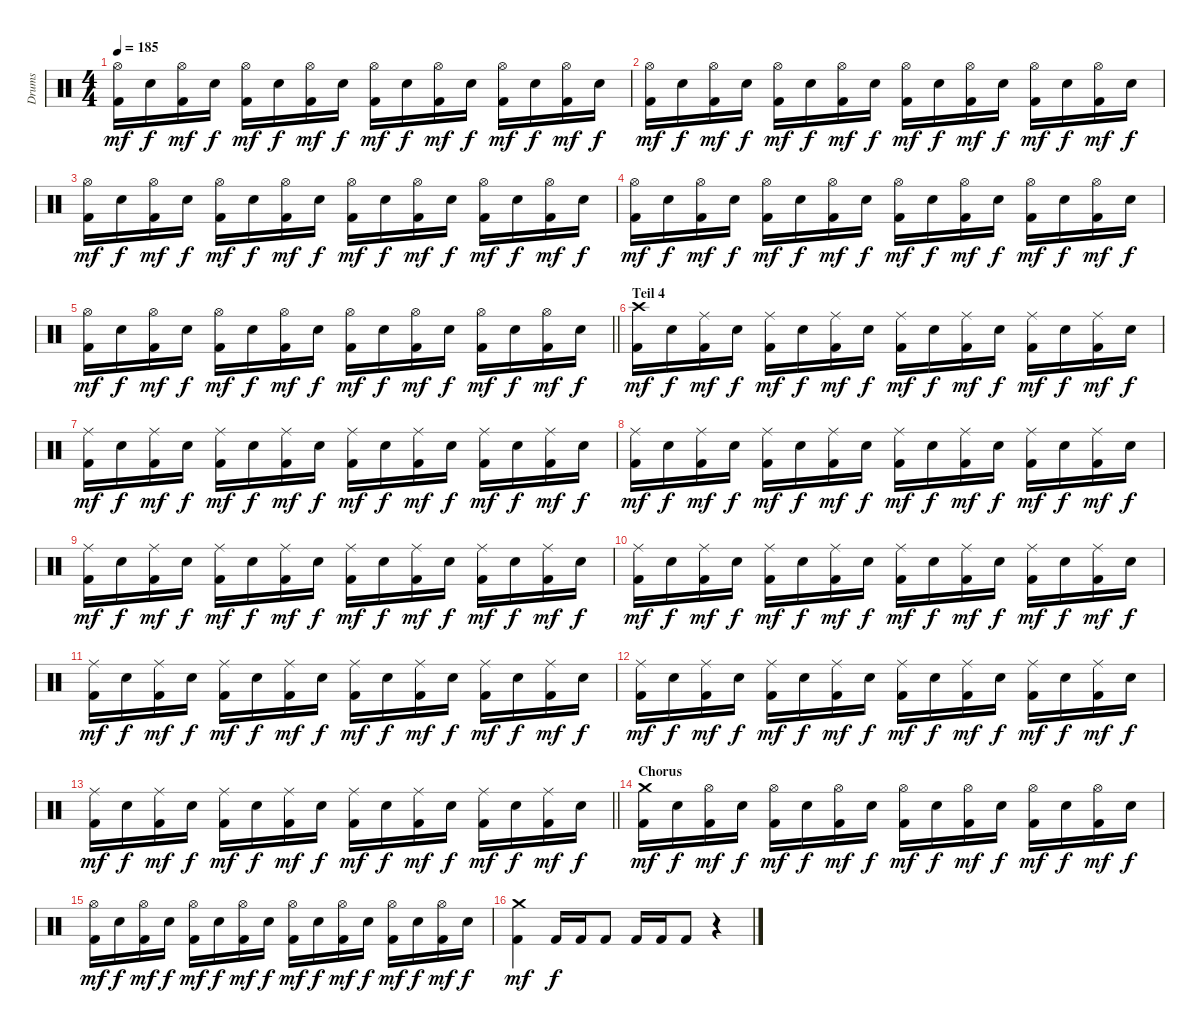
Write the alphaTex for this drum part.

\track ("Drums" "Drums") {instrument percussion}
\staff {score}
\articulation defaults
\ts (4 4)
\tempo 185
\clef neutral
\ks c
("Hi-Hat (open)" "Kick (hit) 2").16{dy mf} "Electric Snare (hit)".16{dy f} ("Hi-Hat (open)" "Kick (hit) 2").16{dy mf} "Electric Snare (hit)".16{dy f} ("Hi-Hat (open)" "Kick (hit) 2").16{dy mf} "Electric Snare (hit)".16{dy f} ("Hi-Hat (open)" "Kick (hit) 2").16{dy mf} "Electric Snare (hit)".16{dy f} ("Hi-Hat (open)" "Kick (hit) 2").16{dy mf} "Electric Snare (hit)".16{dy f} ("Hi-Hat (open)" "Kick (hit) 2").16{dy mf} "Electric Snare (hit)".16{dy f} ("Hi-Hat (open)" "Kick (hit) 2").16{dy mf} "Electric Snare (hit)".16{dy f} ("Hi-Hat (open)" "Kick (hit) 2").16{dy mf} "Electric Snare (hit)".16{dy f} |
("Hi-Hat (open)" "Kick (hit) 2").16{dy mf} "Electric Snare (hit)".16{dy f} ("Hi-Hat (open)" "Kick (hit) 2").16{dy mf} "Electric Snare (hit)".16{dy f} ("Hi-Hat (open)" "Kick (hit) 2").16{dy mf} "Electric Snare (hit)".16{dy f} ("Hi-Hat (open)" "Kick (hit) 2").16{dy mf} "Electric Snare (hit)".16{dy f} ("Hi-Hat (open)" "Kick (hit) 2").16{dy mf} "Electric Snare (hit)".16{dy f} ("Hi-Hat (open)" "Kick (hit) 2").16{dy mf} "Electric Snare (hit)".16{dy f} ("Hi-Hat (open)" "Kick (hit) 2").16{dy mf} "Electric Snare (hit)".16{dy f} ("Hi-Hat (open)" "Kick (hit) 2").16{dy mf} "Electric Snare (hit)".16{dy f} |
("Hi-Hat (open)" "Kick (hit) 2").16{dy mf} "Electric Snare (hit)".16{dy f} ("Hi-Hat (open)" "Kick (hit) 2").16{dy mf} "Electric Snare (hit)".16{dy f} ("Hi-Hat (open)" "Kick (hit) 2").16{dy mf} "Electric Snare (hit)".16{dy f} ("Hi-Hat (open)" "Kick (hit) 2").16{dy mf} "Electric Snare (hit)".16{dy f} ("Hi-Hat (open)" "Kick (hit) 2").16{dy mf} "Electric Snare (hit)".16{dy f} ("Hi-Hat (open)" "Kick (hit) 2").16{dy mf} "Electric Snare (hit)".16{dy f} ("Hi-Hat (open)" "Kick (hit) 2").16{dy mf} "Electric Snare (hit)".16{dy f} ("Hi-Hat (open)" "Kick (hit) 2").16{dy mf} "Electric Snare (hit)".16{dy f} |
("Hi-Hat (open)" "Kick (hit) 2").16{dy mf} "Electric Snare (hit)".16{dy f} ("Hi-Hat (open)" "Kick (hit) 2").16{dy mf} "Electric Snare (hit)".16{dy f} ("Hi-Hat (open)" "Kick (hit) 2").16{dy mf} "Electric Snare (hit)".16{dy f} ("Hi-Hat (open)" "Kick (hit) 2").16{dy mf} "Electric Snare (hit)".16{dy f} ("Hi-Hat (open)" "Kick (hit) 2").16{dy mf} "Electric Snare (hit)".16{dy f} ("Hi-Hat (open)" "Kick (hit) 2").16{dy mf} "Electric Snare (hit)".16{dy f} ("Hi-Hat (open)" "Kick (hit) 2").16{dy mf} "Electric Snare (hit)".16{dy f} ("Hi-Hat (open)" "Kick (hit) 2").16{dy mf} "Electric Snare (hit)".16{dy f} |
\barLineRight lightlight
("Hi-Hat (open)" "Kick (hit) 2").16{dy mf} "Electric Snare (hit)".16{dy f} ("Hi-Hat (open)" "Kick (hit) 2").16{dy mf} "Electric Snare (hit)".16{dy f} ("Hi-Hat (open)" "Kick (hit) 2").16{dy mf} "Electric Snare (hit)".16{dy f} ("Hi-Hat (open)" "Kick (hit) 2").16{dy mf} "Electric Snare (hit)".16{dy f} ("Hi-Hat (open)" "Kick (hit) 2").16{dy mf} "Electric Snare (hit)".16{dy f} ("Hi-Hat (open)" "Kick (hit) 2").16{dy mf} "Electric Snare (hit)".16{dy f} ("Hi-Hat (open)" "Kick (hit) 2").16{dy mf} "Electric Snare (hit)".16{dy f} ("Hi-Hat (open)" "Kick (hit) 2").16{dy mf} "Electric Snare (hit)".16{dy f} |
\section ("" "Teil 4")
("Crash high (hit)" "Kick (hit) 2").16{dy mf} "Electric Snare (hit)".16{dy f} ("Ride (middle)" "Kick (hit) 2").16{dy mf} "Electric Snare (hit)".16{dy f} ("Ride (middle)" "Kick (hit) 2").16{dy mf} "Electric Snare (hit)".16{dy f} ("Ride (middle)" "Kick (hit) 2").16{dy mf} "Electric Snare (hit)".16{dy f} ("Ride (middle)" "Kick (hit) 2").16{dy mf} "Electric Snare (hit)".16{dy f} ("Ride (middle)" "Kick (hit) 2").16{dy mf} "Electric Snare (hit)".16{dy f} ("Ride (middle)" "Kick (hit) 2").16{dy mf} "Electric Snare (hit)".16{dy f} ("Ride (middle)" "Kick (hit) 2").16{dy mf} "Electric Snare (hit)".16{dy f} |
("Ride (middle)" "Kick (hit) 2").16{dy mf} "Electric Snare (hit)".16{dy f} ("Ride (middle)" "Kick (hit) 2").16{dy mf} "Electric Snare (hit)".16{dy f} ("Ride (middle)" "Kick (hit) 2").16{dy mf} "Electric Snare (hit)".16{dy f} ("Ride (middle)" "Kick (hit) 2").16{dy mf} "Electric Snare (hit)".16{dy f} ("Ride (middle)" "Kick (hit) 2").16{dy mf} "Electric Snare (hit)".16{dy f} ("Ride (middle)" "Kick (hit) 2").16{dy mf} "Electric Snare (hit)".16{dy f} ("Ride (middle)" "Kick (hit) 2").16{dy mf} "Electric Snare (hit)".16{dy f} ("Ride (middle)" "Kick (hit) 2").16{dy mf} "Electric Snare (hit)".16{dy f} |
("Ride (middle)" "Kick (hit) 2").16{dy mf} "Electric Snare (hit)".16{dy f} ("Ride (middle)" "Kick (hit) 2").16{dy mf} "Electric Snare (hit)".16{dy f} ("Ride (middle)" "Kick (hit) 2").16{dy mf} "Electric Snare (hit)".16{dy f} ("Ride (middle)" "Kick (hit) 2").16{dy mf} "Electric Snare (hit)".16{dy f} ("Ride (middle)" "Kick (hit) 2").16{dy mf} "Electric Snare (hit)".16{dy f} ("Ride (middle)" "Kick (hit) 2").16{dy mf} "Electric Snare (hit)".16{dy f} ("Ride (middle)" "Kick (hit) 2").16{dy mf} "Electric Snare (hit)".16{dy f} ("Ride (middle)" "Kick (hit) 2").16{dy mf} "Electric Snare (hit)".16{dy f} |
("Ride (middle)" "Kick (hit) 2").16{dy mf} "Electric Snare (hit)".16{dy f} ("Ride (middle)" "Kick (hit) 2").16{dy mf} "Electric Snare (hit)".16{dy f} ("Ride (middle)" "Kick (hit) 2").16{dy mf} "Electric Snare (hit)".16{dy f} ("Ride (middle)" "Kick (hit) 2").16{dy mf} "Electric Snare (hit)".16{dy f} ("Ride (middle)" "Kick (hit) 2").16{dy mf} "Electric Snare (hit)".16{dy f} ("Ride (middle)" "Kick (hit) 2").16{dy mf} "Electric Snare (hit)".16{dy f} ("Ride (middle)" "Kick (hit) 2").16{dy mf} "Electric Snare (hit)".16{dy f} ("Ride (middle)" "Kick (hit) 2").16{dy mf} "Electric Snare (hit)".16{dy f} |
("Ride (middle)" "Kick (hit) 2").16{dy mf} "Electric Snare (hit)".16{dy f} ("Ride (middle)" "Kick (hit) 2").16{dy mf} "Electric Snare (hit)".16{dy f} ("Ride (middle)" "Kick (hit) 2").16{dy mf} "Electric Snare (hit)".16{dy f} ("Ride (middle)" "Kick (hit) 2").16{dy mf} "Electric Snare (hit)".16{dy f} ("Ride (middle)" "Kick (hit) 2").16{dy mf} "Electric Snare (hit)".16{dy f} ("Ride (middle)" "Kick (hit) 2").16{dy mf} "Electric Snare (hit)".16{dy f} ("Ride (middle)" "Kick (hit) 2").16{dy mf} "Electric Snare (hit)".16{dy f} ("Ride (middle)" "Kick (hit) 2").16{dy mf} "Electric Snare (hit)".16{dy f} |
("Ride (middle)" "Kick (hit) 2").16{dy mf} "Electric Snare (hit)".16{dy f} ("Ride (middle)" "Kick (hit) 2").16{dy mf} "Electric Snare (hit)".16{dy f} ("Ride (middle)" "Kick (hit) 2").16{dy mf} "Electric Snare (hit)".16{dy f} ("Ride (middle)" "Kick (hit) 2").16{dy mf} "Electric Snare (hit)".16{dy f} ("Ride (middle)" "Kick (hit) 2").16{dy mf} "Electric Snare (hit)".16{dy f} ("Ride (middle)" "Kick (hit) 2").16{dy mf} "Electric Snare (hit)".16{dy f} ("Ride (middle)" "Kick (hit) 2").16{dy mf} "Electric Snare (hit)".16{dy f} ("Ride (middle)" "Kick (hit) 2").16{dy mf} "Electric Snare (hit)".16{dy f} |
("Ride (middle)" "Kick (hit) 2").16{dy mf} "Electric Snare (hit)".16{dy f} ("Ride (middle)" "Kick (hit) 2").16{dy mf} "Electric Snare (hit)".16{dy f} ("Ride (middle)" "Kick (hit) 2").16{dy mf} "Electric Snare (hit)".16{dy f} ("Ride (middle)" "Kick (hit) 2").16{dy mf} "Electric Snare (hit)".16{dy f} ("Ride (middle)" "Kick (hit) 2").16{dy mf} "Electric Snare (hit)".16{dy f} ("Ride (middle)" "Kick (hit) 2").16{dy mf} "Electric Snare (hit)".16{dy f} ("Ride (middle)" "Kick (hit) 2").16{dy mf} "Electric Snare (hit)".16{dy f} ("Ride (middle)" "Kick (hit) 2").16{dy mf} "Electric Snare (hit)".16{dy f} |
\barLineRight lightlight
("Ride (middle)" "Kick (hit) 2").16{dy mf} "Electric Snare (hit)".16{dy f} ("Ride (middle)" "Kick (hit) 2").16{dy mf} "Electric Snare (hit)".16{dy f} ("Ride (middle)" "Kick (hit) 2").16{dy mf} "Electric Snare (hit)".16{dy f} ("Ride (middle)" "Kick (hit) 2").16{dy mf} "Electric Snare (hit)".16{dy f} ("Ride (middle)" "Kick (hit) 2").16{dy mf} "Electric Snare (hit)".16{dy f} ("Ride (middle)" "Kick (hit) 2").16{dy mf} "Electric Snare (hit)".16{dy f} ("Ride (middle)" "Kick (hit) 2").16{dy mf} "Electric Snare (hit)".16{dy f} ("Ride (middle)" "Kick (hit) 2").16{dy mf} "Electric Snare (hit)".16{dy f} |
\section ("" "Chorus")
("Crash medium (hit)" "Kick (hit) 2").16{dy mf} "Electric Snare (hit)".16{dy f} ("Hi-Hat (open)" "Kick (hit) 2").16{dy mf} "Electric Snare (hit)".16{dy f} ("Hi-Hat (open)" "Kick (hit) 2").16{dy mf} "Electric Snare (hit)".16{dy f} ("Hi-Hat (open)" "Kick (hit) 2").16{dy mf} "Electric Snare (hit)".16{dy f} ("Hi-Hat (open)" "Kick (hit) 2").16{dy mf} "Electric Snare (hit)".16{dy f} ("Hi-Hat (open)" "Kick (hit) 2").16{dy mf} "Electric Snare (hit)".16{dy f} ("Hi-Hat (open)" "Kick (hit) 2").16{dy mf} "Electric Snare (hit)".16{dy f} ("Hi-Hat (open)" "Kick (hit) 2").16{dy mf} "Electric Snare (hit)".16{dy f} |
("Hi-Hat (open)" "Kick (hit) 2").16{dy mf} "Electric Snare (hit)".16{dy f} ("Hi-Hat (open)" "Kick (hit) 2").16{dy mf} "Electric Snare (hit)".16{dy f} ("Hi-Hat (open)" "Kick (hit) 2").16{dy mf} "Electric Snare (hit)".16{dy f} ("Hi-Hat (open)" "Kick (hit) 2").16{dy mf} "Electric Snare (hit)".16{dy f} ("Hi-Hat (open)" "Kick (hit) 2").16{dy mf} "Electric Snare (hit)".16{dy f} ("Hi-Hat (open)" "Kick (hit) 2").16{dy mf} "Electric Snare (hit)".16{dy f} ("Hi-Hat (open)" "Kick (hit) 2").16{dy mf} "Electric Snare (hit)".16{dy f} ("Hi-Hat (open)" "Kick (hit) 2").16{dy mf} "Electric Snare (hit)".16{dy f} |
("Crash medium (hit)" "Kick (hit) 2").4{dy mf} "Kick (hit) 2".16{dy f} "Kick (hit) 2".16 "Kick (hit) 2".8 "Kick (hit) 2".16 "Kick (hit) 2".16 "Kick (hit) 2".8 r.4
